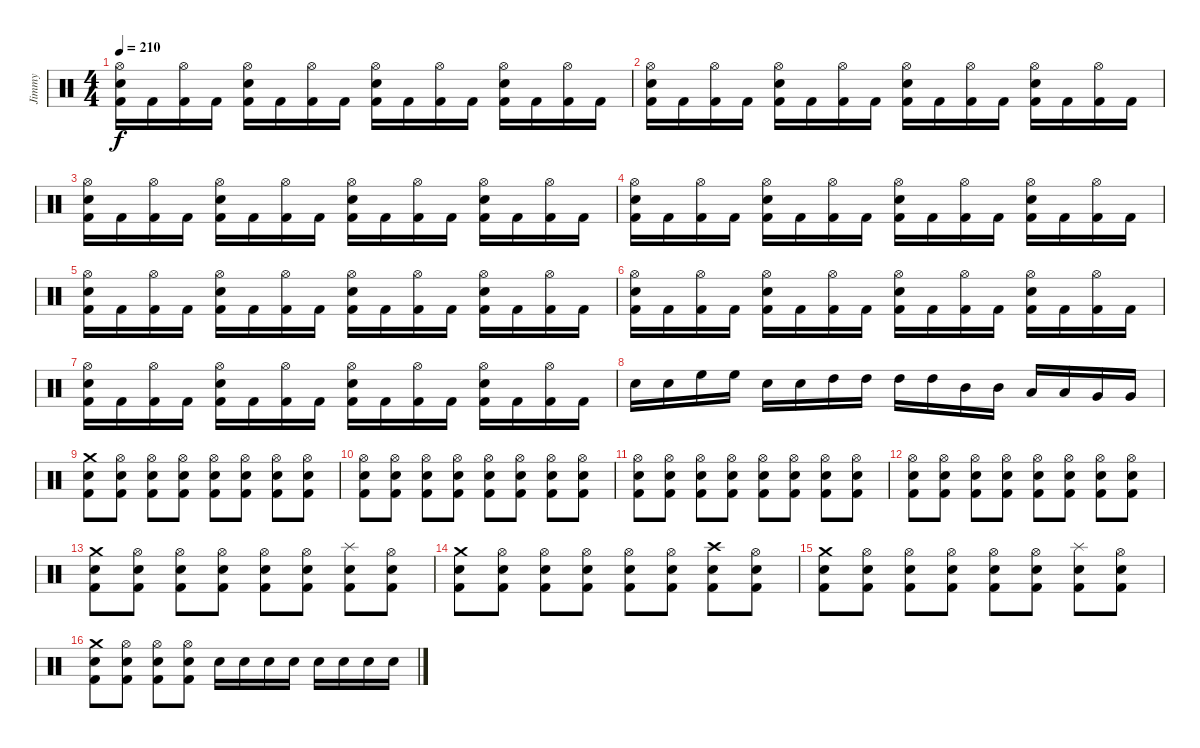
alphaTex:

\track ("Jimmy" "Jimmy") {instrument percussion}
\staff {score}
\articulation defaults
\ts (4 4)
\tempo 210
\clef neutral
\ks c
("Hi-Hat (open)" "Electric Snare (hit)" "Kick (hit) 2").16{dy f} "Kick (hit) 2".16 ("Hi-Hat (open)" "Kick (hit) 2").16 "Kick (hit) 2".16 ("Hi-Hat (open)" "Electric Snare (hit)" "Kick (hit) 2").16 "Kick (hit) 2".16 ("Hi-Hat (open)" "Kick (hit) 2").16 "Kick (hit) 2".16 ("Hi-Hat (open)" "Electric Snare (hit)" "Kick (hit) 2").16 "Kick (hit) 2".16 ("Hi-Hat (open)" "Kick (hit) 2").16 "Kick (hit) 2".16 ("Hi-Hat (open)" "Electric Snare (hit)" "Kick (hit) 2").16 "Kick (hit) 2".16 ("Hi-Hat (open)" "Kick (hit) 2").16 "Kick (hit) 2".16 |
("Hi-Hat (open)" "Electric Snare (hit)" "Kick (hit) 2").16 "Kick (hit) 2".16 ("Hi-Hat (open)" "Kick (hit) 2").16 "Kick (hit) 2".16 ("Hi-Hat (open)" "Electric Snare (hit)" "Kick (hit) 2").16 "Kick (hit) 2".16 ("Hi-Hat (open)" "Kick (hit) 2").16 "Kick (hit) 2".16 ("Hi-Hat (open)" "Electric Snare (hit)" "Kick (hit) 2").16 "Kick (hit) 2".16 ("Hi-Hat (open)" "Kick (hit) 2").16 "Kick (hit) 2".16 ("Hi-Hat (open)" "Electric Snare (hit)" "Kick (hit) 2").16 "Kick (hit) 2".16 ("Hi-Hat (open)" "Kick (hit) 2").16 "Kick (hit) 2".16 |
("Hi-Hat (open)" "Electric Snare (hit)" "Kick (hit) 2").16 "Kick (hit) 2".16 ("Hi-Hat (open)" "Kick (hit) 2").16 "Kick (hit) 2".16 ("Hi-Hat (open)" "Electric Snare (hit)" "Kick (hit) 2").16 "Kick (hit) 2".16 ("Hi-Hat (open)" "Kick (hit) 2").16 "Kick (hit) 2".16 ("Hi-Hat (open)" "Electric Snare (hit)" "Kick (hit) 2").16 "Kick (hit) 2".16 ("Hi-Hat (open)" "Kick (hit) 2").16 "Kick (hit) 2".16 ("Hi-Hat (open)" "Electric Snare (hit)" "Kick (hit) 2").16 "Kick (hit) 2".16 ("Hi-Hat (open)" "Kick (hit) 2").16 "Kick (hit) 2".16 |
("Hi-Hat (open)" "Electric Snare (hit)" "Kick (hit) 2").16 "Kick (hit) 2".16 ("Hi-Hat (open)" "Kick (hit) 2").16 "Kick (hit) 2".16 ("Hi-Hat (open)" "Electric Snare (hit)" "Kick (hit) 2").16 "Kick (hit) 2".16 ("Hi-Hat (open)" "Kick (hit) 2").16 "Kick (hit) 2".16 ("Hi-Hat (open)" "Electric Snare (hit)" "Kick (hit) 2").16 "Kick (hit) 2".16 ("Hi-Hat (open)" "Kick (hit) 2").16 "Kick (hit) 2".16 ("Hi-Hat (open)" "Electric Snare (hit)" "Kick (hit) 2").16 "Kick (hit) 2".16 ("Hi-Hat (open)" "Kick (hit) 2").16 "Kick (hit) 2".16 |
("Hi-Hat (open)" "Electric Snare (hit)" "Kick (hit) 2").16 "Kick (hit) 2".16 ("Hi-Hat (open)" "Kick (hit) 2").16 "Kick (hit) 2".16 ("Hi-Hat (open)" "Electric Snare (hit)" "Kick (hit) 2").16 "Kick (hit) 2".16 ("Hi-Hat (open)" "Kick (hit) 2").16 "Kick (hit) 2".16 ("Hi-Hat (open)" "Electric Snare (hit)" "Kick (hit) 2").16 "Kick (hit) 2".16 ("Hi-Hat (open)" "Kick (hit) 2").16 "Kick (hit) 2".16 ("Hi-Hat (open)" "Electric Snare (hit)" "Kick (hit) 2").16 "Kick (hit) 2".16 ("Hi-Hat (open)" "Kick (hit) 2").16 "Kick (hit) 2".16 |
("Hi-Hat (open)" "Electric Snare (hit)" "Kick (hit) 2").16 "Kick (hit) 2".16 ("Hi-Hat (open)" "Kick (hit) 2").16 "Kick (hit) 2".16 ("Hi-Hat (open)" "Electric Snare (hit)" "Kick (hit) 2").16 "Kick (hit) 2".16 ("Hi-Hat (open)" "Kick (hit) 2").16 "Kick (hit) 2".16 ("Hi-Hat (open)" "Electric Snare (hit)" "Kick (hit) 2").16 "Kick (hit) 2".16 ("Hi-Hat (open)" "Kick (hit) 2").16 "Kick (hit) 2".16 ("Hi-Hat (open)" "Electric Snare (hit)" "Kick (hit) 2").16 "Kick (hit) 2".16 ("Hi-Hat (open)" "Kick (hit) 2").16 "Kick (hit) 2".16 |
("Hi-Hat (open)" "Electric Snare (hit)" "Kick (hit) 2").16 "Kick (hit) 2".16 ("Hi-Hat (open)" "Kick (hit) 2").16 "Kick (hit) 2".16 ("Hi-Hat (open)" "Electric Snare (hit)" "Kick (hit) 2").16 "Kick (hit) 2".16 ("Hi-Hat (open)" "Kick (hit) 2").16 "Kick (hit) 2".16 ("Hi-Hat (open)" "Electric Snare (hit)" "Kick (hit) 2").16 "Kick (hit) 2".16 ("Hi-Hat (open)" "Kick (hit) 2").16 "Kick (hit) 2".16 ("Hi-Hat (open)" "Electric Snare (hit)" "Kick (hit) 2").16 "Kick (hit) 2".16 ("Hi-Hat (open)" "Kick (hit) 2").16 "Kick (hit) 2".16 |
"Electric Snare (hit)".16 "Electric Snare (hit)".16 "High Floor Tom (hit)".16 "High Floor Tom (hit)".16 "Electric Snare (hit)".16 "Electric Snare (hit)".16 "High Tom (hit)".16 "High Tom (hit)".16 "High Tom (hit)".16 "High Tom (hit)".16 "Mid Tom (hit)".16 "Mid Tom (hit)".16 "Low Tom (hit)".16 "Low Tom (hit)".16 "Very Low Tom (hit)".16 "Very Low Tom (hit)".16 |
("Crash medium (hit)" "Electric Snare (hit)" "Kick (hit) 2").8 ("Hi-Hat (open)" "Electric Snare (hit)" "Kick (hit) 2").8 ("Hi-Hat (open)" "Electric Snare (hit)" "Kick (hit) 2").8 ("Hi-Hat (open)" "Electric Snare (hit)" "Kick (hit) 2").8 ("Hi-Hat (open)" "Electric Snare (hit)" "Kick (hit) 2").8 ("Hi-Hat (open)" "Electric Snare (hit)" "Kick (hit) 2").8 ("Hi-Hat (open)" "Electric Snare (hit)" "Kick (hit) 2").8 ("Hi-Hat (open)" "Electric Snare (hit)" "Kick (hit) 2").8 |
("Hi-Hat (open)" "Electric Snare (hit)" "Kick (hit) 2").8 ("Hi-Hat (open)" "Electric Snare (hit)" "Kick (hit) 2").8 ("Hi-Hat (open)" "Electric Snare (hit)" "Kick (hit) 2").8 ("Hi-Hat (open)" "Electric Snare (hit)" "Kick (hit) 2").8 ("Hi-Hat (open)" "Electric Snare (hit)" "Kick (hit) 2").8 ("Hi-Hat (open)" "Electric Snare (hit)" "Kick (hit) 2").8 ("Hi-Hat (open)" "Electric Snare (hit)" "Kick (hit) 2").8 ("Hi-Hat (open)" "Electric Snare (hit)" "Kick (hit) 2").8 |
("Hi-Hat (open)" "Electric Snare (hit)" "Kick (hit) 2").8 ("Hi-Hat (open)" "Electric Snare (hit)" "Kick (hit) 2").8 ("Hi-Hat (open)" "Electric Snare (hit)" "Kick (hit) 2").8 ("Hi-Hat (open)" "Electric Snare (hit)" "Kick (hit) 2").8 ("Hi-Hat (open)" "Electric Snare (hit)" "Kick (hit) 2").8 ("Hi-Hat (open)" "Electric Snare (hit)" "Kick (hit) 2").8 ("Hi-Hat (open)" "Electric Snare (hit)" "Kick (hit) 2").8 ("Hi-Hat (open)" "Electric Snare (hit)" "Kick (hit) 2").8 |
("Hi-Hat (open)" "Electric Snare (hit)" "Kick (hit) 2").8 ("Hi-Hat (open)" "Electric Snare (hit)" "Kick (hit) 2").8 ("Hi-Hat (open)" "Electric Snare (hit)" "Kick (hit) 2").8 ("Hi-Hat (open)" "Electric Snare (hit)" "Kick (hit) 2").8 ("Hi-Hat (open)" "Electric Snare (hit)" "Kick (hit) 2").8 ("Hi-Hat (open)" "Electric Snare (hit)" "Kick (hit) 2").8 ("Hi-Hat (open)" "Electric Snare (hit)" "Kick (hit) 2").8 ("Hi-Hat (open)" "Electric Snare (hit)" "Kick (hit) 2").8 |
("Crash medium (hit)" "Electric Snare (hit)" "Kick (hit) 2").8 ("Hi-Hat (open)" "Electric Snare (hit)" "Kick (hit) 2").8 ("Hi-Hat (open)" "Electric Snare (hit)" "Kick (hit) 2").8 ("Hi-Hat (open)" "Electric Snare (hit)" "Kick (hit) 2").8 ("Hi-Hat (open)" "Electric Snare (hit)" "Kick (hit) 2").8 ("Hi-Hat (open)" "Electric Snare (hit)" "Kick (hit) 2").8 ("Splash (hit)" "Electric Snare (hit)" "Kick (hit) 2").8 ("Hi-Hat (open)" "Electric Snare (hit)" "Kick (hit) 2").8 |
("Crash medium (hit)" "Electric Snare (hit)" "Kick (hit) 2").8 ("Hi-Hat (open)" "Electric Snare (hit)" "Kick (hit) 2").8 ("Hi-Hat (open)" "Electric Snare (hit)" "Kick (hit) 2").8 ("Hi-Hat (open)" "Electric Snare (hit)" "Kick (hit) 2").8 ("Hi-Hat (open)" "Electric Snare (hit)" "Kick (hit) 2").8 ("Hi-Hat (open)" "Electric Snare (hit)" "Kick (hit) 2").8 ("Crash high (hit)" "Electric Snare (hit)" "Kick (hit) 2").8 ("Hi-Hat (open)" "Electric Snare (hit)" "Kick (hit) 2").8 |
("Crash medium (hit)" "Electric Snare (hit)" "Kick (hit) 2").8 ("Hi-Hat (open)" "Electric Snare (hit)" "Kick (hit) 2").8 ("Hi-Hat (open)" "Electric Snare (hit)" "Kick (hit) 2").8 ("Hi-Hat (open)" "Electric Snare (hit)" "Kick (hit) 2").8 ("Hi-Hat (open)" "Electric Snare (hit)" "Kick (hit) 2").8 ("Hi-Hat (open)" "Electric Snare (hit)" "Kick (hit) 2").8 ("Splash (hit)" "Electric Snare (hit)" "Kick (hit) 2").8 ("Hi-Hat (open)" "Electric Snare (hit)" "Kick (hit) 2").8 |
("Crash medium (hit)" "Electric Snare (hit)" "Kick (hit) 2").8 ("Hi-Hat (open)" "Electric Snare (hit)" "Kick (hit) 2").8 ("Hi-Hat (open)" "Electric Snare (hit)" "Kick (hit) 2").8 ("Hi-Hat (open)" "Electric Snare (hit)" "Kick (hit) 2").8 "Electric Snare (hit)".16 "Electric Snare (hit)".16 "Electric Snare (hit)".16 "Electric Snare (hit)".16 "Electric Snare (hit)".16 "Electric Snare (hit)".16 "Electric Snare (hit)".16 "Electric Snare (hit)".16
